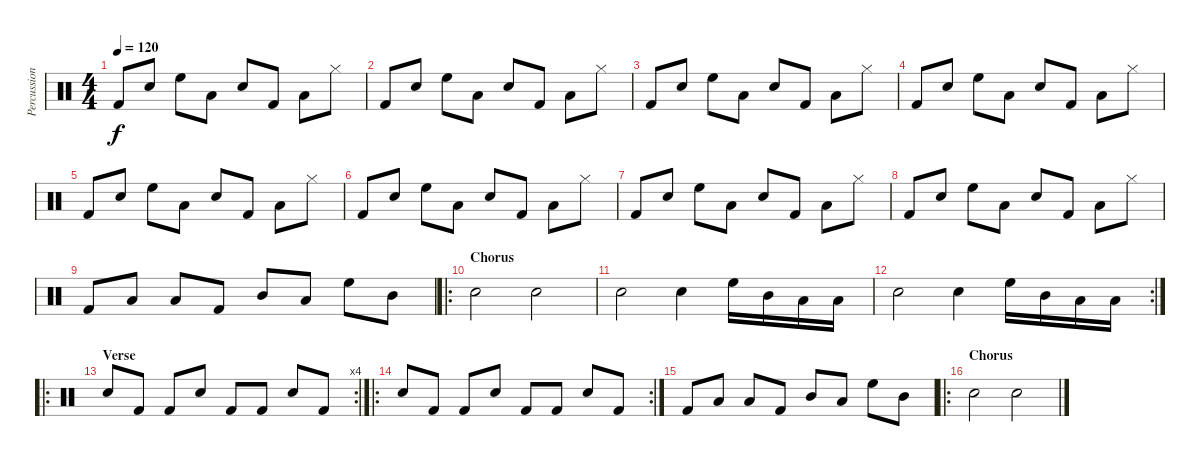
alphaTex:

\track ("Percussion" "Percussion") {instrument percussion}
\staff {score}
\articulation defaults
\ts (4 4)
\tempo 120
\clef neutral
\ks c "Kick (hit) 2".8{dy f} "Snare (hit) 2".8 "High Floor Tom (hit)".8 "Low Floor Tom (hit)".8 "Snare (hit) 2".8 "Kick (hit) 2".8 "Low Floor Tom (hit)".8 "Hi-Hat (closed)".8
|
"Kick (hit) 2".8 "Snare (hit) 2".8 "High Floor Tom (hit)".8 "Low Floor Tom (hit)".8 "Snare (hit) 2".8 "Kick (hit) 2".8 "Low Floor Tom (hit)".8 "Hi-Hat (closed)".8 |
"Kick (hit) 2".8 "Snare (hit) 2".8 "High Floor Tom (hit)".8 "Low Floor Tom (hit)".8 "Snare (hit) 2".8 "Kick (hit) 2".8 "Low Floor Tom (hit)".8 "Hi-Hat (closed)".8 |
"Kick (hit) 2".8 "Snare (hit) 2".8 "High Floor Tom (hit)".8 "Low Floor Tom (hit)".8 "Snare (hit) 2".8 "Kick (hit) 2".8 "Low Floor Tom (hit)".8 "Hi-Hat (closed)".8 |
"Kick (hit) 2".8 "Snare (hit) 2".8 "High Floor Tom (hit)".8 "Low Floor Tom (hit)".8 "Snare (hit) 2".8 "Kick (hit) 2".8 "Low Floor Tom (hit)".8 "Hi-Hat (closed)".8 |
"Kick (hit) 2".8 "Snare (hit) 2".8 "High Floor Tom (hit)".8 "Low Floor Tom (hit)".8 "Snare (hit) 2".8 "Kick (hit) 2".8 "Low Floor Tom (hit)".8 "Hi-Hat (closed)".8 |
"Kick (hit) 2".8 "Snare (hit) 2".8 "High Floor Tom (hit)".8 "Low Floor Tom (hit)".8 "Snare (hit) 2".8 "Kick (hit) 2".8 "Low Floor Tom (hit)".8 "Hi-Hat (closed)".8 |
"Kick (hit) 2".8 "Snare (hit) 2".8 "High Floor Tom (hit)".8 "Low Floor Tom (hit)".8 "Snare (hit) 2".8 "Kick (hit) 2".8 "Low Floor Tom (hit)".8 "Hi-Hat (closed)".8 |
"Kick (hit) 2".8 "Low Floor Tom (hit)".8 "Low Tom (hit)".8 "Kick (hit) 2".8 "Mid Tom (hit)".8 "Low Tom (hit)".8 "High Floor Tom (hit)".8 "Mid Tom (hit)".8 |
\ro
\section ("" "Chorus")
"Snare (hit) 2".2 "Snare (hit) 2".2 |
"Snare (hit) 2".2 "Snare (hit) 2".4 "High Floor Tom (hit)".16 "Mid Tom (hit)".16 "Low Tom (hit)".16 "Low Floor Tom (hit)".16 |
\rc 2 "Snare (hit) 2".2 "Snare (hit) 2".4 "High Floor Tom (hit)".16 "Mid Tom (hit)".16 "Low Tom (hit)".16 "Low Floor Tom (hit)".16
|
\ro
\rc 4
\section ("" "Verse")
"Snare (hit) 2".8 "Kick (hit) 2".8 "Kick (hit) 2".8 "Snare (hit) 2".8 "Kick (hit) 2".8 "Kick (hit) 2".8 "Snare (hit) 2".8 "Kick (hit) 2".8 |
\ro
\rc 2 "Snare (hit) 2".8 "Kick (hit) 2".8 "Kick (hit) 2".8 "Snare (hit) 2".8 "Kick (hit) 2".8 "Kick (hit) 2".8 "Snare (hit) 2".8 "Kick (hit) 2".8
|
"Kick (hit) 2".8 "Low Floor Tom (hit)".8 "Low Tom (hit)".8 "Kick (hit) 2".8 "Mid Tom (hit)".8 "Low Tom (hit)".8 "High Floor Tom (hit)".8 "Mid Tom (hit)".8 |
\ro
\section ("" "Chorus")
"Snare (hit) 2".2 "Snare (hit) 2".2
